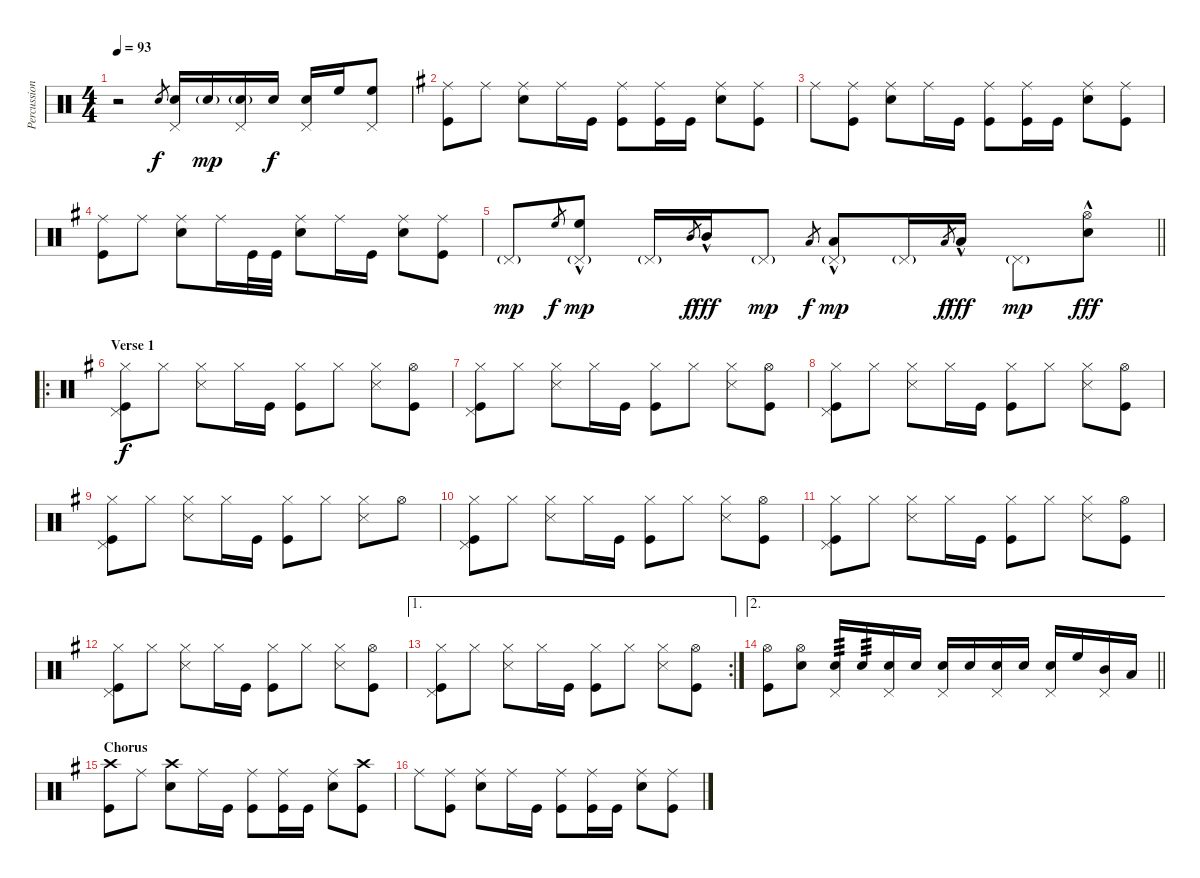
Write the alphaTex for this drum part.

\track ("Percussion" "Percussion") {instrument percussion}
\staff {score}
\articulation defaults
\ts (4 4)
\tempo 93
\clef neutral
\ks c
r.2{dy f} "Snare (hit) 2".8{gr} ("Snare (hit) 2" "Pedal Hi-Hat (hit)").16 "Snare (hit) 2"{g}.16{dy mp} ("Snare (hit) 2"{g} "Pedal Hi-Hat (hit)").16 "Snare (hit) 2".16{dy f} ("Snare (hit) 2" "Pedal Hi-Hat (hit)").16 "High Floor Tom (hit)".16 ("High Floor Tom (hit)" "Pedal Hi-Hat (hit)").8 |
\ks g
("Ride (middle)" "Kick (hit)").8 "Ride (middle)".8 ("Ride (middle)" "Snare (hit) 2").8 "Ride (middle)".16 "Kick (hit)".16 ("Ride (middle)" "Kick (hit)").8 ("Ride (middle)" "Kick (hit)").16 "Kick (hit)".16 ("Ride (middle)" "Snare (hit) 2").8 ("Ride (middle)" "Kick (hit)").8 |
"Ride (middle)".8 ("Ride (middle)" "Kick (hit)").8 ("Ride (middle)" "Snare (hit) 2").8 "Ride (middle)".16 "Kick (hit)".16 ("Ride (middle)" "Kick (hit)").8 ("Ride (middle)" "Kick (hit)").16 "Kick (hit)".16 ("Ride (middle)" "Snare (hit) 2").8 ("Ride (middle)" "Kick (hit)").8 |
("Ride (middle)" "Kick (hit)").8 "Ride (middle)".8 ("Ride (middle)" "Snare (hit) 2").8 "Ride (middle)".16 "Kick (hit)".32 "Kick (hit)".32 ("Ride (middle)" "Snare (hit) 2").8 "Ride (middle)".16 "Kick (hit)".16 ("Ride (middle)" "Snare (hit) 2").8 ("Ride (middle)" "Kick (hit)").8 |
\barLineRight lightlight "Pedal Hi-Hat (hit)"{g}.8{dy mp} "High Floor Tom (hit)".8{gr dy f}
("High Floor Tom (hit)"{hac} "Pedal Hi-Hat (hit)"{g}).8{dy mp} "Pedal Hi-Hat (hit)"{g}.16 "Mid Tom (hit)".8{gr dy f} "Mid Tom (hit)"{hac}.16{dy fff} "Pedal Hi-Hat (hit)"{g}.8{dy mp} "Low Floor Tom (hit)".8{gr dy f} ("Low Floor Tom (hit)"{hac} "Pedal Hi-Hat (hit)"{g}).8{dy mp} "Pedal Hi-Hat (hit)"{g}.16 "Low Floor Tom (hit)".8{gr dy f} "Low Floor Tom (hit)"{hac}.16{dy fff} "Pedal Hi-Hat (hit)"{g}.8{dy mp} ("Hi-Hat (open)" "Snare (hit) 2"{hac}).8{dy fff} |
\ro
\section ("" "Verse 1")
("Hi-Hat (closed)" "Pedal Hi-Hat (hit)" "Kick (hit)").8{dy f} "Hi-Hat (closed)".8 ("Hi-Hat (closed)" "Snare (side stick) 3").8 "Hi-Hat (closed)".16 "Kick (hit)".16 ("Hi-Hat (closed)" "Kick (hit)").8 "Hi-Hat (closed)".8 ("Hi-Hat (closed)" "Snare (side stick) 3").8 ("Hi-Hat (open)" "Kick (hit)").8 |
("Hi-Hat (closed)" "Pedal Hi-Hat (hit)" "Kick (hit)").8 "Hi-Hat (closed)".8 ("Hi-Hat (closed)" "Snare (side stick) 3").8 "Hi-Hat (closed)".16 "Kick (hit)".16 ("Hi-Hat (closed)" "Kick (hit)").8 "Hi-Hat (closed)".8 ("Hi-Hat (closed)" "Snare (side stick) 3").8 ("Hi-Hat (open)" "Kick (hit)").8 |
("Hi-Hat (closed)" "Pedal Hi-Hat (hit)" "Kick (hit)").8 "Hi-Hat (closed)".8 ("Hi-Hat (closed)" "Snare (side stick) 3").8 "Hi-Hat (closed)".16 "Kick (hit)".16 ("Hi-Hat (closed)" "Kick (hit)").8 "Hi-Hat (closed)".8 ("Hi-Hat (closed)" "Snare (side stick) 3").8 ("Hi-Hat (open)" "Kick (hit)").8 |
("Hi-Hat (closed)" "Pedal Hi-Hat (hit)" "Kick (hit)").8 "Hi-Hat (closed)".8 ("Hi-Hat (closed)" "Snare (side stick) 3").8 "Hi-Hat (closed)".16 "Kick (hit)".16 ("Hi-Hat (closed)" "Kick (hit)").8 "Hi-Hat (closed)".8 ("Hi-Hat (closed)" "Snare (side stick) 3").8 "Hi-Hat (open)".8 |
("Hi-Hat (closed)" "Pedal Hi-Hat (hit)" "Kick (hit)").8 "Hi-Hat (closed)".8 ("Hi-Hat (closed)" "Snare (side stick) 3").8 "Hi-Hat (closed)".16 "Kick (hit)".16 ("Hi-Hat (closed)" "Kick (hit)").8 "Hi-Hat (closed)".8 ("Hi-Hat (closed)" "Snare (side stick) 3").8 ("Hi-Hat (open)" "Kick (hit)").8 |
("Hi-Hat (closed)" "Pedal Hi-Hat (hit)" "Kick (hit)").8 "Hi-Hat (closed)".8 ("Hi-Hat (closed)" "Snare (side stick) 3").8 "Hi-Hat (closed)".16 "Kick (hit)".16 ("Hi-Hat (closed)" "Kick (hit)").8 "Hi-Hat (closed)".8 ("Hi-Hat (closed)" "Snare (side stick) 3").8 ("Hi-Hat (open)" "Kick (hit)").8 |
("Hi-Hat (closed)" "Pedal Hi-Hat (hit)" "Kick (hit)").8 "Hi-Hat (closed)".8 ("Hi-Hat (closed)" "Snare (side stick) 3").8 "Hi-Hat (closed)".16 "Kick (hit)".16 ("Hi-Hat (closed)" "Kick (hit)").8 "Hi-Hat (closed)".8 ("Hi-Hat (closed)" "Snare (side stick) 3").8 ("Hi-Hat (open)" "Kick (hit)").8 |
\ae 1
\rc 2
("Hi-Hat (closed)" "Pedal Hi-Hat (hit)" "Kick (hit)").8 "Hi-Hat (closed)".8 ("Hi-Hat (closed)" "Snare (side stick) 3").8 "Hi-Hat (closed)".16 "Kick (hit)".16 ("Hi-Hat (closed)" "Kick (hit)").8 "Hi-Hat (closed)".8 ("Hi-Hat (closed)" "Snare (side stick) 3").8 ("Hi-Hat (open)" "Kick (hit)").8 |
\ae 2
\barLineRight lightlight
("Hi-Hat (open)" "Kick (hit)").8 ("Hi-Hat (open)" "Snare (hit) 2").8 ("Snare (hit) 2" "Pedal Hi-Hat (hit)").16{tp 3} "Snare (hit) 2".16{tp 3} ("Snare (hit) 2" "Pedal Hi-Hat (hit)").16 "Snare (hit) 2".16 ("Snare (hit) 2" "Pedal Hi-Hat (hit)").16 "Snare (hit) 2".16 ("Snare (hit) 2" "Pedal Hi-Hat (hit)").16 "Snare (hit) 2".16 ("Snare (hit) 2" "Pedal Hi-Hat (hit)").16 "High Floor Tom (hit)".16 ("Mid Tom (hit)" "Pedal Hi-Hat (hit)").16 "Low Floor Tom (hit)".16 |
\section ("" "Chorus")
("Crash high (hit)" "Kick (hit)").8 "Ride (middle)".8 ("Crash high (hit)" "Snare (hit) 2").8 "Ride (middle)".16 "Kick (hit)".16 ("Ride (middle)" "Kick (hit)").8 ("Ride (middle)" "Kick (hit)").16 "Kick (hit)".16 ("Ride (middle)" "Snare (hit) 2").8 ("Crash high (hit)" "Kick (hit)").8 |
"Ride (middle)".8 ("Ride (middle)" "Kick (hit)").8 ("Ride (middle)" "Snare (hit) 2").8 "Ride (middle)".16 "Kick (hit)".16 ("Ride (middle)" "Kick (hit)").8 ("Ride (middle)" "Kick (hit)").16 "Kick (hit)".16 ("Ride (middle)" "Snare (hit) 2").8 ("Ride (middle)" "Kick (hit)").8
